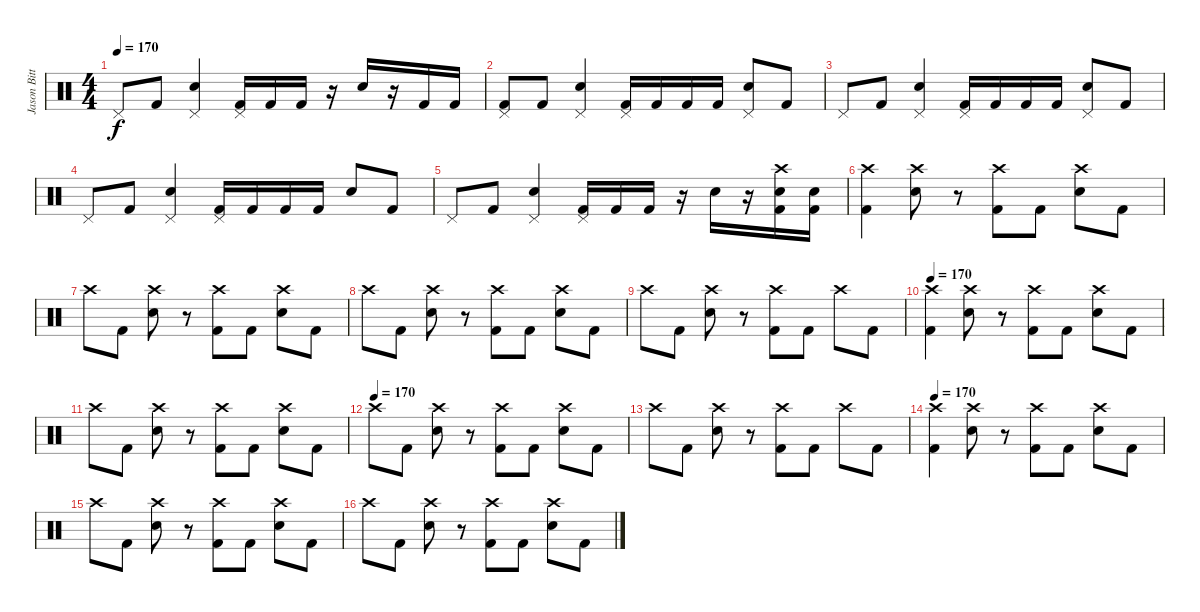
\track ("Jason Bittner" "Jason Bitt") {instrument percussion}
\staff {score}
\articulation defaults
\ts (4 4)
\tempo 170
\clef neutral
\ks c "Pedal Hi-Hat (hit)".8{dy f} "Kick (hit) 2".8
("Pedal Hi-Hat (hit)" "Electric Snare (hit)").4 ("Pedal Hi-Hat (hit)" "Kick (hit) 2").16 "Kick (hit) 2".16 "Kick (hit) 2".16 r.16 "Electric Snare (hit)".16 r.16 "Kick (hit) 2".16 "Kick (hit) 2".16 |
("Pedal Hi-Hat (hit)" "Kick (hit) 2").8 "Kick (hit) 2".8 ("Pedal Hi-Hat (hit)" "Electric Snare (hit)").4 ("Pedal Hi-Hat (hit)" "Kick (hit) 2").16 "Kick (hit) 2".16 "Kick (hit) 2".16 "Kick (hit) 2".16 ("Pedal Hi-Hat (hit)" "Electric Snare (hit)").8 "Kick (hit) 2".8 |
"Pedal Hi-Hat (hit)".8 "Kick (hit) 2".8 ("Pedal Hi-Hat (hit)" "Electric Snare (hit)").4 ("Pedal Hi-Hat (hit)" "Kick (hit) 2").16 "Kick (hit) 2".16 "Kick (hit) 2".16 "Kick (hit) 2".16 ("Pedal Hi-Hat (hit)" "Electric Snare (hit)").8 "Kick (hit) 2".8 |
"Pedal Hi-Hat (hit)".8 "Kick (hit) 2".8 ("Pedal Hi-Hat (hit)" "Electric Snare (hit)").4 ("Pedal Hi-Hat (hit)" "Kick (hit) 2").16 "Kick (hit) 2".16 "Kick (hit) 2".16 "Kick (hit) 2".16 "Electric Snare (hit)".8 "Kick (hit) 2".8 |
"Pedal Hi-Hat (hit)".8 "Kick (hit) 2".8 ("Pedal Hi-Hat (hit)" "Electric Snare (hit)").4 ("Pedal Hi-Hat (hit)" "Kick (hit) 2").16 "Kick (hit) 2".16 "Kick (hit) 2".16 r.16 "Electric Snare (hit)".16 r.16 ("Crash high (hit)" "Electric Snare (hit)" "Kick (hit) 2").16 ("Electric Snare (hit)" "Kick (hit) 2").16 |
("Crash high (hit)" "Kick (hit) 2").4 ("Crash high (hit)" "Electric Snare (hit)").8 r.8 ("Crash high (hit)" "Kick (hit) 2").8 "Kick (hit) 2".8 ("Crash high (hit)" "Electric Snare (hit)").8 "Kick (hit) 2".8 |
"Crash high (hit)".8 "Kick (hit) 2".8 ("Crash high (hit)" "Electric Snare (hit)").8 r.8 ("Crash high (hit)" "Kick (hit) 2").8 "Kick (hit) 2".8 ("Crash high (hit)" "Electric Snare (hit)").8 "Kick (hit) 2".8 |
"Crash high (hit)".8 "Kick (hit) 2".8 ("Crash high (hit)" "Electric Snare (hit)").8 r.8 ("Crash high (hit)" "Kick (hit) 2").8 "Kick (hit) 2".8 ("Crash high (hit)" "Electric Snare (hit)").8 "Kick (hit) 2".8 |
"Crash high (hit)".8 "Kick (hit) 2".8 ("Crash high (hit)" "Electric Snare (hit)").8 r.8 ("Crash high (hit)" "Kick (hit) 2").8 "Kick (hit) 2".8 "Crash high (hit)".8 "Kick (hit) 2".8 |
\tempo 170
("Crash high (hit)" "Kick (hit) 2").4 ("Crash high (hit)" "Electric Snare (hit)").8 r.8 ("Crash high (hit)" "Kick (hit) 2").8 "Kick (hit) 2".8 ("Crash high (hit)" "Electric Snare (hit)").8 "Kick (hit) 2".8 |
"Crash high (hit)".8 "Kick (hit) 2".8 ("Crash high (hit)" "Electric Snare (hit)").8 r.8 ("Crash high (hit)" "Kick (hit) 2").8 "Kick (hit) 2".8 ("Crash high (hit)" "Electric Snare (hit)").8 "Kick (hit) 2".8 |
\tempo (170)
"Crash high (hit)".8 "Kick (hit) 2".8 ("Crash high (hit)" "Electric Snare (hit)").8 r.8 ("Crash high (hit)" "Kick (hit) 2").8 "Kick (hit) 2".8 ("Crash high (hit)" "Electric Snare (hit)").8 "Kick (hit) 2".8 |
"Crash high (hit)".8 "Kick (hit) 2".8 ("Crash high (hit)" "Electric Snare (hit)").8 r.8 ("Crash high (hit)" "Kick (hit) 2").8 "Kick (hit) 2".8 "Crash high (hit)".8 "Kick (hit) 2".8 |
\tempo 170
("Crash high (hit)" "Kick (hit) 2").4 ("Crash high (hit)" "Electric Snare (hit)").8 r.8 ("Crash high (hit)" "Kick (hit) 2").8 "Kick (hit) 2".8 ("Crash high (hit)" "Electric Snare (hit)").8 "Kick (hit) 2".8 |
"Crash high (hit)".8 "Kick (hit) 2".8 ("Crash high (hit)" "Electric Snare (hit)").8 r.8 ("Crash high (hit)" "Kick (hit) 2").8 "Kick (hit) 2".8 ("Crash high (hit)" "Electric Snare (hit)").8 "Kick (hit) 2".8 |
"Crash high (hit)".8 "Kick (hit) 2".8 ("Crash high (hit)" "Electric Snare (hit)").8 r.8 ("Crash high (hit)" "Kick (hit) 2").8 "Kick (hit) 2".8 ("Crash high (hit)" "Electric Snare (hit)").8 "Kick (hit) 2".8
